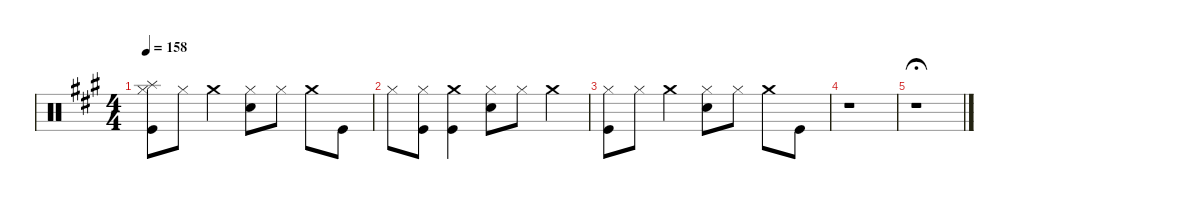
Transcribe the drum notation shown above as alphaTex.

\defaultSystemsLayout 4
\hideDynamics
\bracketExtendMode nobrackets
\singleTrackTrackNamePolicy hidden
\multiTrackTrackNamePolicy hidden
\firstSystemTrackNameMode fullname
\firstSystemTrackNameOrientation horizontal
\otherSystemsTrackNameOrientation horizontal
\track ("Drums" "drm.") {instrument percussion}
\staff {score}
\articulation defaults
\ts (4 4)
\tempo 158
\clef neutral
\ks f#minor
("Splash (hit)"{acc forcenatural} "Hi-Hat (closed)"{acc forcenatural} "Kick (hit)"{acc forcenatural}).8{dy f beam Down} "Hi-Hat (closed)"{acc forcenatural}.8{dy mp beam Down} "Crash medium (hit)"{acc forcenatural}.4{dy f beam Down} ("Hi-Hat (closed)"{acc forcenatural} "Snare (hit) 2"{acc forcenatural}).8{dy mp beam Down} "Hi-Hat (closed)"{acc forcenatural}.8{beam Down} "Crash medium (hit)"{acc forcenatural}.8{dy f beam Down} "Kick (hit)"{acc forcenatural}.8{beam Down} |
"Hi-Hat (closed)"{acc forcenatural}.8{dy mp beam Down} ("Hi-Hat (closed)"{acc forcenatural} "Kick (hit)"{acc forcenatural}).8{beam Down} ("Crash medium (hit)"{acc forcenatural} "Kick (hit)"{acc forcenatural}).4{dy f beam Down} ("Hi-Hat (closed)"{acc forcenatural} "Snare (hit) 2"{acc forcenatural}).8{dy mp beam Down} "Hi-Hat (closed)"{acc forcenatural}.8{beam Down} "Crash medium (hit)"{acc forcenatural}.4{dy f beam Down} |
("Hi-Hat (closed)"{acc forcenatural} "Kick (hit)"{acc forcenatural}).8{dy mp beam Down} "Hi-Hat (closed)"{acc forcenatural}.8{beam Down} "Crash medium (hit)"{acc forcenatural}.4{dy f beam Down} ("Hi-Hat (closed)"{acc forcenatural} "Snare (hit) 2"{acc forcenatural}).8{dy mp beam Down} "Hi-Hat (closed)"{acc forcenatural}.8{beam Down} "Crash medium (hit)"{acc forcenatural}.8{dy f beam Down} "Kick (hit)"{acc forcenatural}.8{beam Down} |
r.1{beam Down} |
r.1{fermata (medium 0.5) beam Down}
